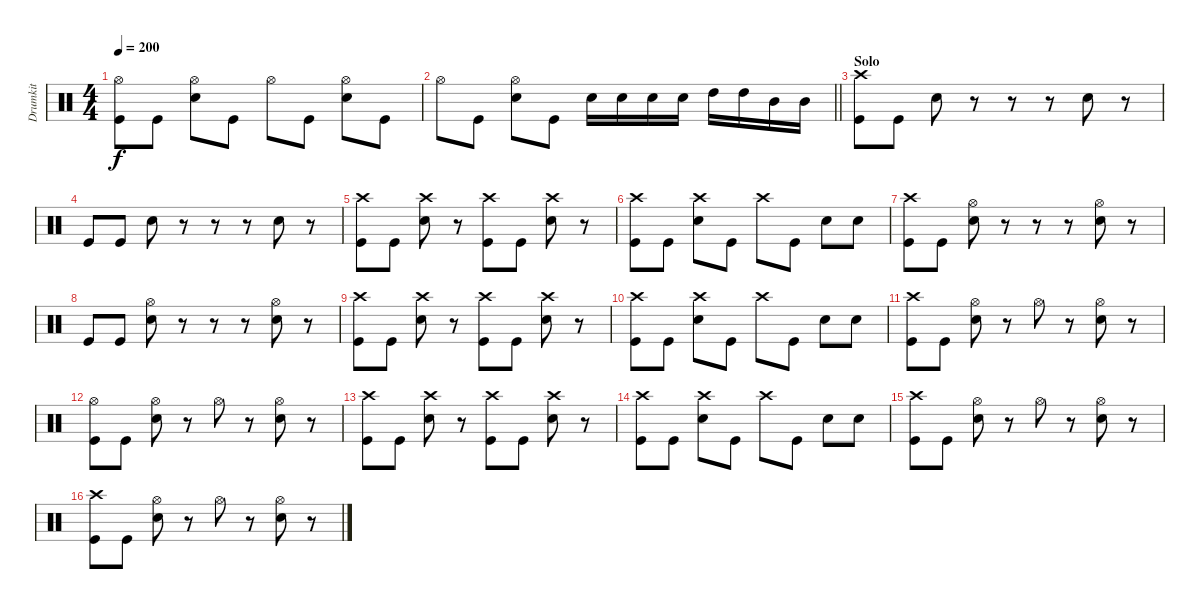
\track ("Drumkit" "Drumkit") {instrument percussion}
\staff {score}
\articulation defaults
\ts (4 4)
\tempo 200
\clef neutral
\ks c
("Hi-Hat (open)" "Kick (hit)").8{dy f} "Kick (hit)".8 ("Hi-Hat (open)" "Snare (hit) 2").8 "Kick (hit)".8 "Hi-Hat (open)".8 "Kick (hit)".8 ("Snare (hit) 2" "Hi-Hat (open)").8 "Kick (hit)".8 |
\barLineRight lightlight "Hi-Hat (open)".8 "Kick (hit)".8
("Hi-Hat (open)" "Snare (hit) 2").8 "Kick (hit)".8 "Snare (hit) 2".16 "Snare (hit) 2".16 "Snare (hit) 2".16 "Snare (hit) 2".16 "High Tom (hit)".16 "High Tom (hit)".16 "Mid Tom (hit)".16 "Mid Tom (hit)".16 |
\section ("" "Solo")
("Crash high (hit)" "Kick (hit)").8 "Kick (hit)".8 "Snare (hit) 2".8 r.8 r.8 r.8 "Snare (hit) 2".8 r.8 |
"Kick (hit)".8 "Kick (hit)".8 "Snare (hit) 2".8 r.8 r.8 r.8 "Snare (hit) 2".8 r.8 |
("Crash high (hit)" "Kick (hit)").8 "Kick (hit)".8 ("Snare (hit) 2" "Crash high (hit)").8 r.8 ("Kick (hit)" "Crash high (hit)").8 "Kick (hit)".8 ("Snare (hit) 2" "Crash high (hit)").8 r.8 |
("Crash high (hit)" "Kick (hit)").8 "Kick (hit)".8 ("Snare (hit) 2" "Crash high (hit)").8 "Kick (hit)".8 "Crash high (hit)".8 "Kick (hit)".8 "Snare (hit) 2".8 "Snare (hit) 2".8 |
("Crash high (hit)" "Kick (hit)").8 "Kick (hit)".8 ("Hi-Hat (open)" "Snare (hit) 2").8 r.8 r.8 r.8 ("Hi-Hat (open)" "Snare (hit) 2").8 r.8 |
"Kick (hit)".8 "Kick (hit)".8 ("Hi-Hat (open)" "Snare (hit) 2").8 r.8 r.8 r.8 ("Hi-Hat (open)" "Snare (hit) 2").8 r.8 |
("Crash high (hit)" "Kick (hit)").8 "Kick (hit)".8 ("Snare (hit) 2" "Crash high (hit)").8 r.8 ("Kick (hit)" "Crash high (hit)").8 "Kick (hit)".8 ("Snare (hit) 2" "Crash high (hit)").8 r.8 |
("Crash high (hit)" "Kick (hit)").8 "Kick (hit)".8 ("Snare (hit) 2" "Crash high (hit)").8 "Kick (hit)".8 "Crash high (hit)".8 "Kick (hit)".8 "Snare (hit) 2".8 "Snare (hit) 2".8 |
("Crash high (hit)" "Kick (hit)").8 "Kick (hit)".8 ("Hi-Hat (open)" "Snare (hit) 2").8 r.8 "Hi-Hat (open)".8 r.8 ("Hi-Hat (open)" "Snare (hit) 2").8 r.8 |
("Hi-Hat (open)" "Kick (hit)").8 "Kick (hit)".8 ("Hi-Hat (open)" "Snare (hit) 2").8 r.8 "Hi-Hat (open)".8 r.8 ("Hi-Hat (open)" "Snare (hit) 2").8 r.8 |
("Crash high (hit)" "Kick (hit)").8 "Kick (hit)".8 ("Snare (hit) 2" "Crash high (hit)").8 r.8 ("Kick (hit)" "Crash high (hit)").8 "Kick (hit)".8 ("Snare (hit) 2" "Crash high (hit)").8 r.8 |
("Crash high (hit)" "Kick (hit)").8 "Kick (hit)".8 ("Snare (hit) 2" "Crash high (hit)").8 "Kick (hit)".8 "Crash high (hit)".8 "Kick (hit)".8 "Snare (hit) 2".8 "Snare (hit) 2".8 |
("Crash high (hit)" "Kick (hit)").8 "Kick (hit)".8 ("Hi-Hat (open)" "Snare (hit) 2").8 r.8 "Hi-Hat (open)".8 r.8 ("Hi-Hat (open)" "Snare (hit) 2").8 r.8 |
("Crash high (hit)" "Kick (hit)").8 "Kick (hit)".8 ("Hi-Hat (open)" "Snare (hit) 2").8 r.8 "Hi-Hat (open)".8 r.8 ("Hi-Hat (open)" "Snare (hit) 2").8 r.8
